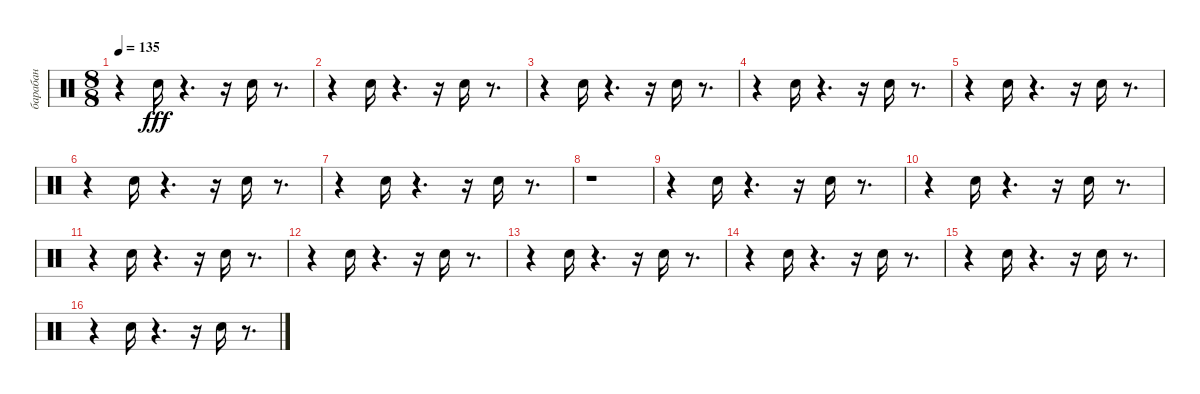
\track ("барабан" "барабан") {instrument percussion}
\staff {score}
\articulation defaults
\ts (8 8)
\tempo 135
\clef neutral
\ks c
r.4{dy fff} "Snare (hit) 2".16 r.4{d} r.16 "Snare (hit) 2".16 r.8{d} |
r.4 "Snare (hit) 2".16 r.4{d} r.16 "Snare (hit) 2".16 r.8{d} |
r.4 "Snare (hit) 2".16 r.4{d} r.16 "Snare (hit) 2".16 r.8{d} |
r.4 "Snare (hit) 2".16 r.4{d} r.16 "Snare (hit) 2".16 r.8{d} |
r.4 "Snare (hit) 2".16 r.4{d} r.16 "Snare (hit) 2".16 r.8{d} |
r.4 "Snare (hit) 2".16 r.4{d} r.16 "Snare (hit) 2".16 r.8{d} |
r.4 "Snare (hit) 2".16 r.4{d} r.16 "Snare (hit) 2".16 r.8{d} |
r.1 |
r.4 "Snare (hit) 2".16 r.4{d} r.16 "Snare (hit) 2".16 r.8{d} |
r.4 "Snare (hit) 2".16 r.4{d} r.16 "Snare (hit) 2".16 r.8{d} |
r.4 "Snare (hit) 2".16 r.4{d} r.16 "Snare (hit) 2".16 r.8{d} |
r.4 "Snare (hit) 2".16 r.4{d} r.16 "Snare (hit) 2".16 r.8{d} |
r.4 "Snare (hit) 2".16 r.4{d} r.16 "Snare (hit) 2".16 r.8{d} |
r.4 "Snare (hit) 2".16 r.4{d} r.16 "Snare (hit) 2".16 r.8{d} |
r.4 "Snare (hit) 2".16 r.4{d} r.16 "Snare (hit) 2".16 r.8{d} |
r.4 "Snare (hit) 2".16 r.4{d} r.16 "Snare (hit) 2".16 r.8{d}
